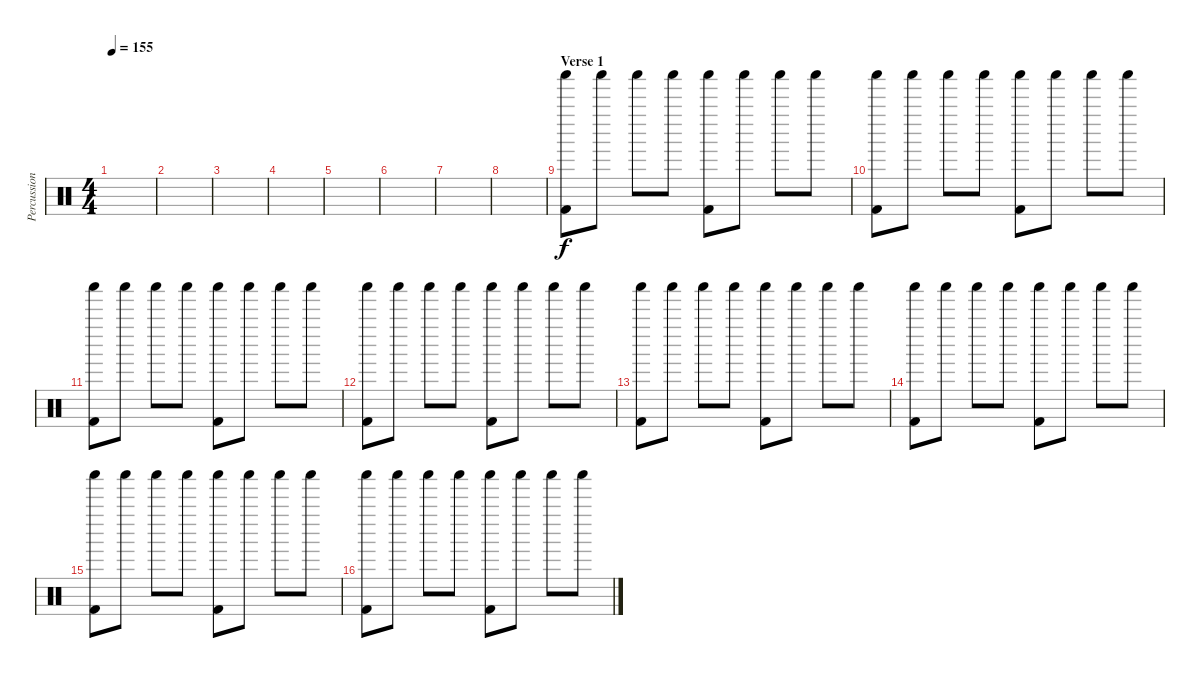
\track ("Percussion" "Percussion") {instrument percussion}
\staff {score}
\articulation defaults
\ts (4 4)
\tempo 155
\clef neutral
\ks c
|
|
|
|
|
|
|
|
\section ("" "Verse 1")
("Kick (hit) 2" "Shaker (hit)").8 "Shaker (hit)".8 "Shaker (hit)".8 "Shaker (hit)".8 ("Kick (hit) 2" "Shaker (hit)").8 "Shaker (hit)".8 "Shaker (hit)".8 "Shaker (hit)".8 |
("Kick (hit) 2" "Shaker (hit)").8 "Shaker (hit)".8 "Shaker (hit)".8 "Shaker (hit)".8 ("Kick (hit) 2" "Shaker (hit)").8 "Shaker (hit)".8 "Shaker (hit)".8 "Shaker (hit)".8 |
("Kick (hit) 2" "Shaker (hit)").8 "Shaker (hit)".8 "Shaker (hit)".8 "Shaker (hit)".8 ("Kick (hit) 2" "Shaker (hit)").8 "Shaker (hit)".8 "Shaker (hit)".8 "Shaker (hit)".8 |
("Kick (hit) 2" "Shaker (hit)").8 "Shaker (hit)".8 "Shaker (hit)".8 "Shaker (hit)".8 ("Kick (hit) 2" "Shaker (hit)").8 "Shaker (hit)".8 "Shaker (hit)".8 "Shaker (hit)".8 |
("Kick (hit) 2" "Shaker (hit)").8 "Shaker (hit)".8 "Shaker (hit)".8 "Shaker (hit)".8 ("Kick (hit) 2" "Shaker (hit)").8 "Shaker (hit)".8 "Shaker (hit)".8 "Shaker (hit)".8 |
("Kick (hit) 2" "Shaker (hit)").8 "Shaker (hit)".8 "Shaker (hit)".8 "Shaker (hit)".8 ("Kick (hit) 2" "Shaker (hit)").8 "Shaker (hit)".8 "Shaker (hit)".8 "Shaker (hit)".8 |
("Kick (hit) 2" "Shaker (hit)").8 "Shaker (hit)".8 "Shaker (hit)".8 "Shaker (hit)".8 ("Kick (hit) 2" "Shaker (hit)").8 "Shaker (hit)".8 "Shaker (hit)".8 "Shaker (hit)".8 |
("Kick (hit) 2" "Shaker (hit)").8 "Shaker (hit)".8 "Shaker (hit)".8 "Shaker (hit)".8 ("Kick (hit) 2" "Shaker (hit)").8 "Shaker (hit)".8 "Shaker (hit)".8 "Shaker (hit)".8
